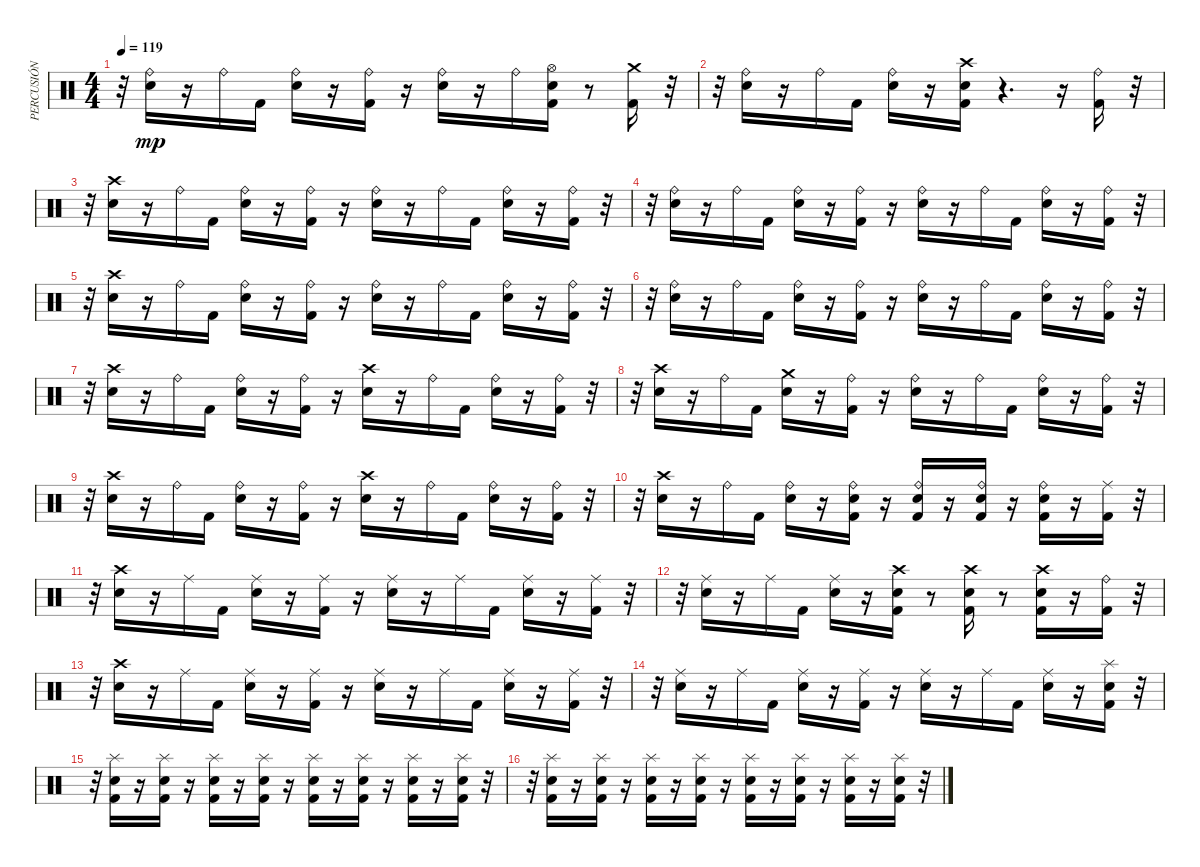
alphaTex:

\track ("PERCUSIÓN" "PERCUSIÓN") {instrument percussion}
\staff {score}
\articulation defaults
\ts (4 4)
\tempo 119
\clef neutral
\ks c
r.32{dy mp} ("Snare (hit) 2" "Ride (bell)").16 r.16 "Ride (bell)".16 "Kick (hit) 2".16 ("Snare (hit) 2" "Ride (bell)").16 r.16 ("Kick (hit) 2" "Ride (bell)").16 r.16 ("Snare (hit) 2" "Ride (bell)").16 r.16 "Ride (bell)".16 ("Kick (hit) 2" "Hi-Hat (open)" "Snare (hit) 2").16 r.8 ("Kick (hit) 2" "Crash medium (hit)").16 r.32 |
r.32 ("Snare (hit) 2" "Ride (bell)").16 r.16 "Ride (bell)".16 "Kick (hit) 2".16 ("Snare (hit) 2" "Ride (bell)").16 r.16 ("Kick (hit) 2" "Snare (hit) 2" "Crash high (hit)").16 r.4{d} r.16 ("Kick (hit) 2" "Ride (bell)").16 r.32 |
r.32 ("Snare (hit) 2" "Crash high (hit)").16 r.16 "Ride (bell)".16 "Kick (hit) 2".16 ("Snare (hit) 2" "Ride (bell)").16 r.16 ("Kick (hit) 2" "Ride (bell)").16 r.16 ("Snare (hit) 2" "Ride (bell)").16 r.16 "Ride (bell)".16 "Kick (hit) 2".16 ("Snare (hit) 2" "Ride (bell)").16 r.16 ("Kick (hit) 2" "Ride (bell)").16 r.32 |
r.32 ("Snare (hit) 2" "Ride (bell)").16 r.16 "Ride (bell)".16 "Kick (hit) 2".16 ("Snare (hit) 2" "Ride (bell)").16 r.16 ("Kick (hit) 2" "Ride (bell)").16 r.16 ("Snare (hit) 2" "Ride (bell)").16 r.16 "Ride (bell)".16 "Kick (hit) 2".16 ("Snare (hit) 2" "Ride (bell)").16 r.16 ("Kick (hit) 2" "Ride (bell)").16 r.32 |
r.32 ("Snare (hit) 2" "Crash high (hit)").16 r.16 "Ride (bell)".16 "Kick (hit) 2".16 ("Snare (hit) 2" "Ride (bell)").16 r.16 ("Kick (hit) 2" "Ride (bell)").16 r.16 ("Snare (hit) 2" "Ride (bell)").16 r.16 "Ride (bell)".16 "Kick (hit) 2".16 ("Snare (hit) 2" "Ride (bell)").16 r.16 ("Kick (hit) 2" "Ride (bell)").16 r.32 |
r.32 ("Snare (hit) 2" "Ride (bell)").16 r.16 "Ride (bell)".16 "Kick (hit) 2".16 ("Snare (hit) 2" "Ride (bell)").16 r.16 ("Ride (bell)" "Kick (hit) 2").16 r.16 ("Ride (bell)" "Snare (hit) 2").16 r.16 "Ride (bell)".16 "Kick (hit) 2".16 ("Ride (bell)" "Snare (hit) 2").16 r.16 ("Kick (hit) 2" "Ride (bell)").16 r.32 |
r.32 ("Snare (hit) 2" "Crash high (hit)").16 r.16 "Ride (bell)".16 "Kick (hit) 2".16 ("Snare (hit) 2" "Ride (bell)").16 r.16 ("Kick (hit) 2" "Ride (bell)").16 r.16 ("Snare (hit) 2" "Crash high (hit)").16 r.16 "Ride (bell)".16 "Kick (hit) 2".16 ("Snare (hit) 2" "Ride (bell)").16 r.16 ("Kick (hit) 2" "Ride (bell)").16 r.32 |
r.32 ("Snare (hit) 2" "Crash high (hit)").16 r.16 "Ride (bell)".16 "Kick (hit) 2".16 ("Snare (hit) 2" "Crash medium (hit)").16 r.16 ("Kick (hit) 2" "Ride (bell)").16 r.16 ("Snare (hit) 2" "Ride (bell)").16 r.16 "Ride (bell)".16 "Kick (hit) 2".16 ("Snare (hit) 2" "Ride (bell)").16 r.16 ("Kick (hit) 2" "Ride (bell)").16 r.32 |
r.32 ("Snare (hit) 2" "Crash high (hit)").16 r.16 "Ride (bell)".16 "Kick (hit) 2".16 ("Snare (hit) 2" "Ride (bell)").16 r.16 ("Kick (hit) 2" "Ride (bell)").16 r.16 ("Snare (hit) 2" "Crash high (hit)").16 r.16 "Ride (bell)".16 "Kick (hit) 2".16 ("Snare (hit) 2" "Ride (bell)").16 r.16 ("Kick (hit) 2" "Ride (bell)").16 r.32 |
r.32 ("Snare (hit) 2" "Crash high (hit)").16 r.16 "Ride (bell)".16 "Kick (hit) 2".16 ("Snare (hit) 2" "Ride (bell)").16 r.16 ("Kick (hit) 2" "Ride (bell)" "Snare (hit) 2").16 r.16 ("Snare (hit) 2" "Ride (bell)" "Kick (hit) 2").16 r.16 ("Ride (bell)" "Snare (hit) 2" "Kick (hit) 2").16 r.16 ("Snare (hit) 2" "Ride (bell)" "Kick (hit) 2").16 r.16 ("Kick (hit) 2" "Ride (middle)").16 r.32 |
r.32 ("Snare (hit) 2" "Crash high (hit)").16 r.16 "Ride (middle)".16 "Kick (hit) 2".16 ("Snare (hit) 2" "Ride (middle)").16 r.16 ("Kick (hit) 2" "Ride (middle)").16 r.16 ("Snare (hit) 2" "Ride (middle)").16 r.16 "Ride (middle)".16 "Kick (hit) 2".16 ("Snare (hit) 2" "Ride (middle)").16 r.16 ("Kick (hit) 2" "Ride (middle)").16 r.32 |
r.32 ("Snare (hit) 2" "Ride (middle)").16 r.16 "Ride (middle)".16 "Kick (hit) 2".16 ("Snare (hit) 2" "Ride (middle)").16 r.16 ("Kick (hit) 2" "Snare (hit) 2" "Crash high (hit)").16 r.8 ("Kick (hit) 2" "Snare (hit) 2" "Crash high (hit)").16 r.8 ("Snare (hit) 2" "Kick (hit) 2" "Crash high (hit)").16 r.16 ("Kick (hit) 2" "Ride (bell)").16 r.32 |
r.32 ("Snare (hit) 2" "Crash high (hit)").16 r.16 "Ride (middle)".16 "Kick (hit) 2".16 ("Snare (hit) 2" "Ride (middle)").16 r.16 ("Kick (hit) 2" "Ride (middle)").16 r.16 ("Snare (hit) 2" "Ride (middle)").16 r.16 "Ride (middle)".16 "Kick (hit) 2".16 ("Snare (hit) 2" "Ride (middle)").16 r.16 ("Kick (hit) 2" "Ride (middle)").16 r.32 |
r.32 ("Snare (hit) 2" "Ride (middle)").16 r.16 "Ride (middle)".16 "Kick (hit) 2".16 ("Snare (hit) 2" "Ride (middle)").16 r.16 ("Kick (hit) 2" "Ride (middle)").16 r.16 ("Snare (hit) 2" "Ride (middle)").16 r.16 "Ride (middle)".16 "Kick (hit) 2".16 ("Snare (hit) 2" "Ride (middle)").16 r.16 ("Kick (hit) 2" "Snare (hit) 2" "Splash (hit)").16 r.32 |
r.32 ("Kick (hit) 2" "Snare (hit) 2" "Splash (hit)").16 r.16 ("Kick (hit) 2" "Snare (hit) 2" "Splash (hit)").16 r.16 ("Kick (hit) 2" "Snare (hit) 2" "Splash (hit)").16 r.16 ("Kick (hit) 2" "Snare (hit) 2" "Splash (hit)").16 r.16 ("Kick (hit) 2" "Snare (hit) 2" "Splash (hit)").16 r.16 ("Kick (hit) 2" "Snare (hit) 2" "Splash (hit)").16 r.16 ("Kick (hit) 2" "Snare (hit) 2" "Splash (hit)").16 r.16 ("Snare (hit) 2" "Kick (hit) 2" "Splash (hit)").16 r.32 |
r.32 ("Kick (hit) 2" "Snare (hit) 2" "Splash (hit)").16 r.16 ("Kick (hit) 2" "Snare (hit) 2" "Splash (hit)").16 r.16 ("Kick (hit) 2" "Snare (hit) 2" "Splash (hit)").16 r.16 ("Kick (hit) 2" "Snare (hit) 2" "Splash (hit)").16 r.16 ("Kick (hit) 2" "Snare (hit) 2" "Splash (hit)").16 r.16 ("Kick (hit) 2" "Snare (hit) 2" "Splash (hit)").16 r.16 ("Kick (hit) 2" "Snare (hit) 2" "Splash (hit)").16 r.16 ("Snare (hit) 2" "Kick (hit) 2" "Splash (hit)").16 r.32
